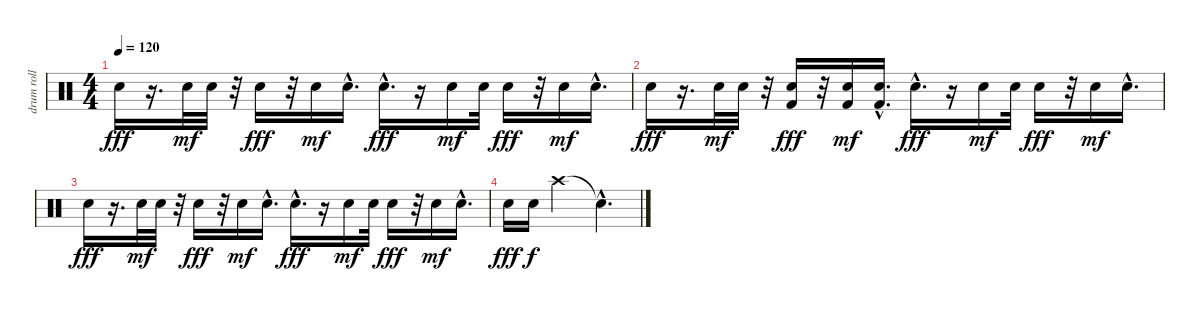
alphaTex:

\track ("drum roll" "drum roll") {instrument percussion}
\staff {score}
\articulation defaults
\ts (4 4)
\tempo 120
\clef neutral
\ks c "Electric Snare (hit)".16{dy fff}
r.16{d} "Electric Snare (hit)".32{dy mf} "Electric Snare (hit)".32 r.32 "Electric Snare (hit)".16{dy fff} r.32 "Electric Snare (hit)".16{dy mf} "Electric Snare (hit)"{hac}.16{d} "Electric Snare (hit)"{hac}.16{d dy fff} r.16 "Electric Snare (hit)".16{dy mf} "Electric Snare (hit)".32 "Electric Snare (hit)".16{dy fff} r.32 "Electric Snare (hit)".16{dy mf} "Electric Snare (hit)"{hac}.16{d} |
"Electric Snare (hit)".16{dy fff} r.16{d} "Electric Snare (hit)".32{dy mf} "Electric Snare (hit)".32 r.32 ("Electric Snare (hit)" "Kick (hit) 2").16{dy fff} r.32 ("Electric Snare (hit)" "Kick (hit) 2").16{dy mf} ("Electric Snare (hit)"{hac} "Kick (hit) 2"{hac}).16{d} "Electric Snare (hit)"{hac}.16{d dy fff} r.16 "Electric Snare (hit)".16{dy mf} "Electric Snare (hit)".32 "Electric Snare (hit)".16{dy fff} r.32 "Electric Snare (hit)".16{dy mf} "Electric Snare (hit)"{hac}.16{d} |
"Electric Snare (hit)".16{dy fff} r.16{d} "Electric Snare (hit)".32{dy mf} "Electric Snare (hit)".32 r.32 "Electric Snare (hit)".16{dy fff} r.32 "Electric Snare (hit)".16{dy mf} "Electric Snare (hit)"{hac}.16{d} "Electric Snare (hit)"{hac}.16{d dy fff} r.16 "Electric Snare (hit)".16{dy mf} "Electric Snare (hit)".32 "Electric Snare (hit)".16{dy fff} r.32 "Electric Snare (hit)".16{dy mf} "Electric Snare (hit)"{hac}.16{d} |
"Electric Snare (hit)".16{dy fff} "Electric Snare (hit)".16{dy f} "Crash high (hit)".2 "Snare (hit)"{hac t}.4{d}
